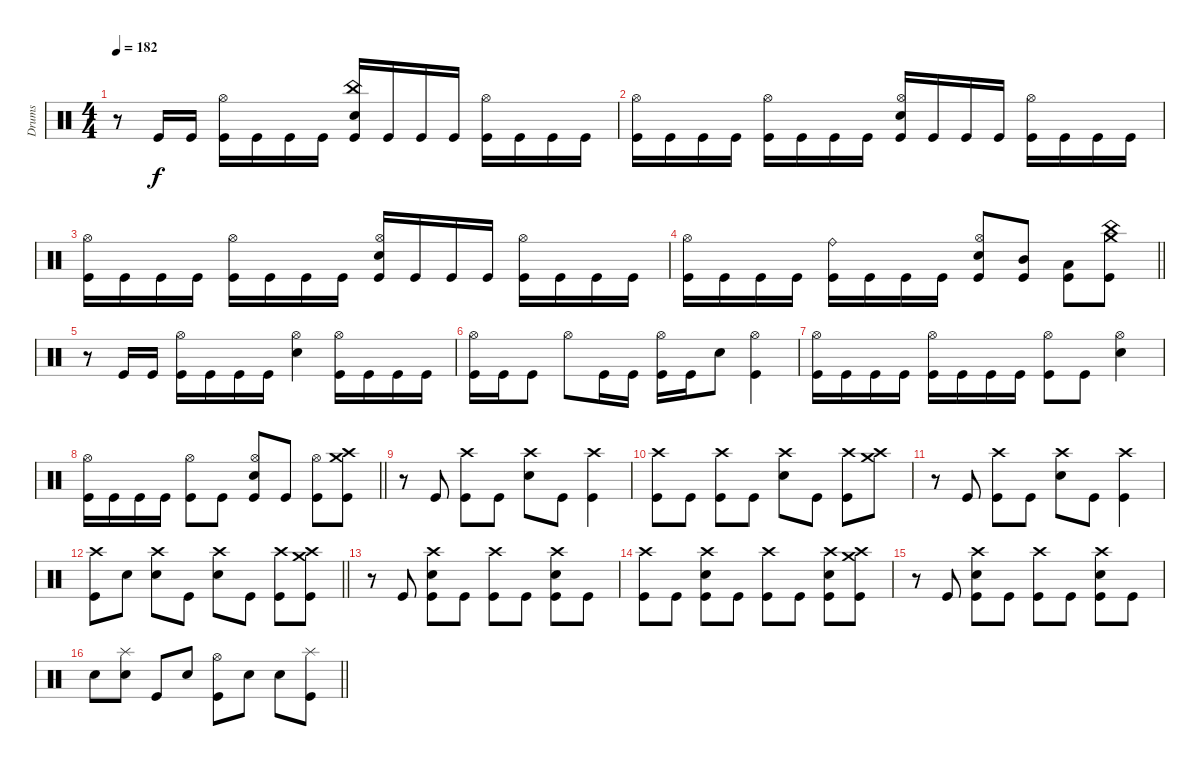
\track ("Drums" "Drums") {instrument percussion}
\staff
\articulation defaults
\ts (4 4)
\tempo 182
\clef neutral
\ks c
r.8{dy f} "Kick (hit)".16 "Kick (hit)".16 ("Hi-Hat (open)" "Kick (hit)").16 "Kick (hit)".16 "Kick (hit)".16 "Kick (hit)".16 ("China (hit)" "Electric Snare (hit)" "Kick (hit)").16 "Kick (hit)".16 "Kick (hit)".16 "Kick (hit)".16 ("Hi-Hat (open)" "Kick (hit)").16 "Kick (hit)".16 "Kick (hit)".16 "Kick (hit)".16 |
("Hi-Hat (open)" "Kick (hit)").16 "Kick (hit)".16 "Kick (hit)".16 "Kick (hit)".16 ("Hi-Hat (open)" "Kick (hit)").16 "Kick (hit)".16 "Kick (hit)".16 "Kick (hit)".16 ("Hi-Hat (open)" "Electric Snare (hit)" "Kick (hit)").16 "Kick (hit)".16 "Kick (hit)".16 "Kick (hit)".16 ("Hi-Hat (open)" "Kick (hit)").16 "Kick (hit)".16 "Kick (hit)".16 "Kick (hit)".16 |
("Hi-Hat (open)" "Kick (hit)").16 "Kick (hit)".16 "Kick (hit)".16 "Kick (hit)".16 ("Hi-Hat (open)" "Kick (hit)").16 "Kick (hit)".16 "Kick (hit)".16 "Kick (hit)".16 ("Hi-Hat (open)" "Electric Snare (hit)" "Kick (hit)").16 "Kick (hit)".16 "Kick (hit)".16 "Kick (hit)".16 ("Hi-Hat (open)" "Kick (hit)").16 "Kick (hit)".16 "Kick (hit)".16 "Kick (hit)".16 |
\barLineRight lightlight
("Hi-Hat (open)" "Kick (hit)").16 "Kick (hit)".16 "Kick (hit)".16 "Kick (hit)".16 ("Ride (bell)" "Kick (hit)").16 "Kick (hit)".16 "Kick (hit)".16 "Kick (hit)".16 ("Hi-Hat (open)" "Electric Snare (hit)" "Kick (hit)").8 ("Mid Tom (hit)" "Kick (hit)").8 ("Low Tom (hit)" "Kick (hit)").8 ("China (hit)" "Crash medium (hit)" "Kick (hit)").8 |
r.8 "Kick (hit)".16 "Kick (hit)".16 ("Hi-Hat (open)" "Kick (hit)").16 "Kick (hit)".16 "Kick (hit)".16 "Kick (hit)".16 ("Hi-Hat (open)" "Electric Snare (hit)").4 ("Hi-Hat (open)" "Kick (hit)").16 "Kick (hit)".16 "Kick (hit)".16 "Kick (hit)".16 |
("Hi-Hat (open)" "Kick (hit)").16 "Kick (hit)".16 "Kick (hit)".8 "Hi-Hat (open)".8 "Kick (hit)".16 "Kick (hit)".16 ("Hi-Hat (open)" "Kick (hit)").16 "Kick (hit)".16 "Electric Snare (hit)".8 ("Hi-Hat (open)" "Kick (hit)").4 |
("Hi-Hat (open)" "Kick (hit)").16 "Kick (hit)".16 "Kick (hit)".16 "Kick (hit)".16 ("Hi-Hat (open)" "Kick (hit)").16 "Kick (hit)".16 "Kick (hit)".16 "Kick (hit)".16 ("Hi-Hat (open)" "Kick (hit)").8 "Kick (hit)".8 ("Hi-Hat (open)" "Electric Snare (hit)").4 |
\barLineRight lightlight
("Hi-Hat (open)" "Kick (hit)").16 "Kick (hit)".16 "Kick (hit)".16 "Kick (hit)".16 ("Hi-Hat (open)" "Kick (hit)").8 "Kick (hit)".8 ("Hi-Hat (open)" "Electric Snare (hit)" "Kick (hit)").8 "Kick (hit)".8 ("Hi-Hat (open)" "Kick (hit)").8 ("Crash high (hit)" "Crash medium (hit)" "Kick (hit)").8 |
\section ("" "")
r.8 "Kick (hit)".8 ("Crash high (hit)" "Kick (hit)").8 "Kick (hit)".8 ("Crash high (hit)" "Electric Snare (hit)").8 "Kick (hit)".8 ("Crash high (hit)" "Kick (hit)").4 |
("Crash high (hit)" "Kick (hit)").8 "Kick (hit)".8 ("Crash high (hit)" "Kick (hit)").8 "Kick (hit)".8 ("Crash high (hit)" "Electric Snare (hit)").8 "Kick (hit)".8 ("Crash high (hit)" "Kick (hit)").8 ("Crash high (hit)" "Crash medium (hit)").8 |
r.8 "Kick (hit)".8 ("Crash high (hit)" "Kick (hit)").8 "Kick (hit)".8 ("Crash high (hit)" "Electric Snare (hit)").8 "Kick (hit)".8 ("Crash high (hit)" "Kick (hit)").4 |
\barLineRight lightlight
("Crash high (hit)" "Kick (hit)").8 "Electric Snare (hit)".8 ("Crash high (hit)" "Electric Snare (hit)").8 "Kick (hit)".8 ("Crash high (hit)" "Electric Snare (hit)").8 "Kick (hit)".8 ("Crash high (hit)" "Kick (hit)").8 ("Crash high (hit)" "Crash medium (hit)" "Kick (hit)").8 |
r.8 "Kick (hit)".8 ("Crash high (hit)" "Electric Snare (hit)" "Kick (hit)").8 "Kick (hit)".8 ("Crash high (hit)" "Kick (hit)").8 "Kick (hit)".8 ("Crash high (hit)" "Electric Snare (hit)" "Kick (hit)").8 "Kick (hit)".8 |
("Crash high (hit)" "Kick (hit)").8 "Kick (hit)".8 ("Crash high (hit)" "Electric Snare (hit)" "Kick (hit)").8 "Kick (hit)".8 ("Crash high (hit)" "Kick (hit)").8 "Kick (hit)".8 ("Crash high (hit)" "Electric Snare (hit)" "Kick (hit)").8 ("Crash high (hit)" "Crash medium (hit)" "Kick (hit)").8 |
r.8 "Kick (hit)".8 ("Crash high (hit)" "Electric Snare (hit)" "Kick (hit)").8 "Kick (hit)".8 ("Crash high (hit)" "Kick (hit)").8 "Kick (hit)".8 ("Crash high (hit)" "Electric Snare (hit)" "Kick (hit)").8 "Kick (hit)".8 |
\barLineRight lightlight "Electric Snare (hit)".8
("Splash (hit)" "Electric Snare (hit)").8 "Kick (hit)".8 "Electric Snare (hit)".8 ("Hi-Hat (open)" "Kick (hit)").8 "Electric Snare (hit)".8 "Electric Snare (hit)".8 ("Splash (hit)" "Kick (hit)").8
